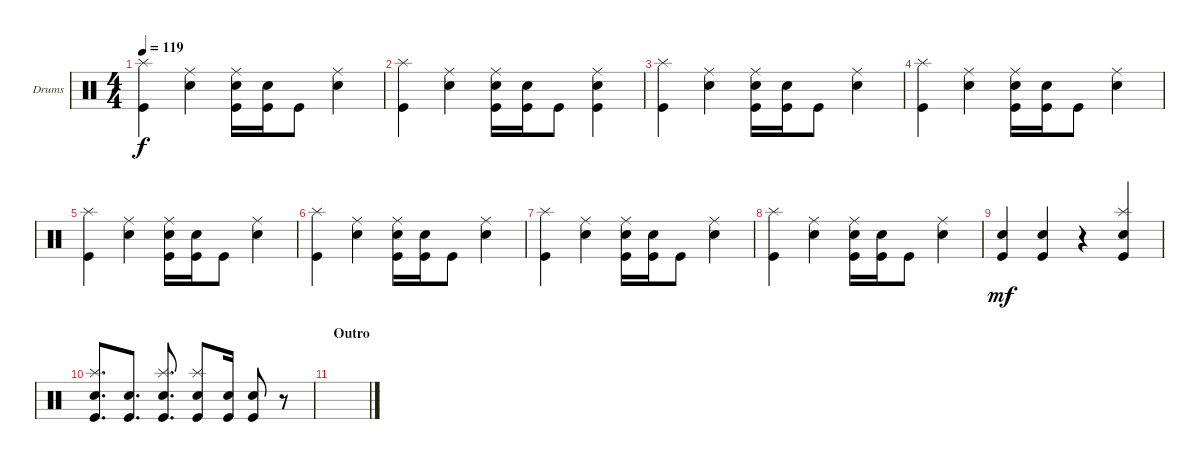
\defaultSystemsLayout 4
\bracketExtendMode groupsimilarinstruments
\firstSystemTrackNameOrientation horizontal
\otherSystemsTrackNameOrientation horizontal
\track ("Drumkit" "Drums") {instrument percussion}
\staff {score}
\articulation defaults
\ts (4 4)
\tempo 119
\clef neutral
\ks c
("Kick (hit)" "Splash (hit)").4{dy f} ("Snare (hit) 2" "Ride (middle)").4 ("Kick (hit)" "Snare (hit) 2" "Ride (middle)").16 ("Kick (hit)" "Snare (hit) 2").16 "Kick (hit)".8 ("Snare (hit) 2" "Ride (middle)").4 |
("Kick (hit)" "Splash (hit)").4 ("Snare (hit) 2" "Ride (middle)").4 ("Kick (hit)" "Snare (hit) 2" "Ride (middle)").16 ("Kick (hit)" "Snare (hit) 2").16 "Kick (hit)".8 ("Snare (hit) 2" "Ride (middle)" "Kick (hit)").4 |
("Kick (hit)" "Splash (hit)").4 ("Snare (hit) 2" "Ride (middle)").4 ("Kick (hit)" "Snare (hit) 2" "Ride (middle)").16 ("Kick (hit)" "Snare (hit) 2").16 "Kick (hit)".8 ("Snare (hit) 2" "Ride (middle)").4 |
("Kick (hit)" "Splash (hit)").4 ("Snare (hit) 2" "Ride (middle)").4 ("Kick (hit)" "Snare (hit) 2" "Ride (middle)").16 ("Kick (hit)" "Snare (hit) 2").16 "Kick (hit)".8 ("Snare (hit) 2" "Ride (middle)").4 |
("Kick (hit)" "Splash (hit)").4 ("Snare (hit) 2" "Ride (middle)").4 ("Kick (hit)" "Snare (hit) 2" "Ride (middle)").16 ("Kick (hit)" "Snare (hit) 2").16 "Kick (hit)".8 ("Snare (hit) 2" "Ride (middle)").4 |
("Kick (hit)" "Splash (hit)").4 ("Snare (hit) 2" "Ride (middle)").4 ("Kick (hit)" "Snare (hit) 2" "Ride (middle)").16 ("Kick (hit)" "Snare (hit) 2").16 "Kick (hit)".8 ("Snare (hit) 2" "Ride (middle)").4 |
("Kick (hit)" "Splash (hit)").4 ("Snare (hit) 2" "Ride (middle)").4 ("Kick (hit)" "Snare (hit) 2" "Ride (middle)").16 ("Kick (hit)" "Snare (hit) 2").16 "Kick (hit)".8 ("Snare (hit) 2" "Ride (middle)").4 |
("Kick (hit)" "Splash (hit)").4 ("Snare (hit) 2" "Ride (middle)").4 ("Kick (hit)" "Snare (hit) 2" "Ride (middle)").16 ("Kick (hit)" "Snare (hit) 2").16 "Kick (hit)".8 ("Snare (hit) 2" "Ride (middle)").4 |
("Kick (hit)" "Snare (hit) 2").4{dy mf} ("Kick (hit)" "Snare (hit) 2").4 r.4 ("Kick (hit)" "Snare (hit) 2" "Splash (hit)").4 |
("Kick (hit)" "Splash (hit)" "Snare (hit) 2").8{d} ("Kick (hit)" "Snare (hit) 2").8{d} ("Kick (hit)" "Splash (hit)" "Snare (hit) 2").8{d} ("Kick (hit)" "Splash (hit)" "Snare (hit) 2").8 ("Kick (hit)" "Snare (hit) 2").16 ("Kick (hit)" "Snare (hit) 2").8 r.8 |
\section ("" "Outro")
